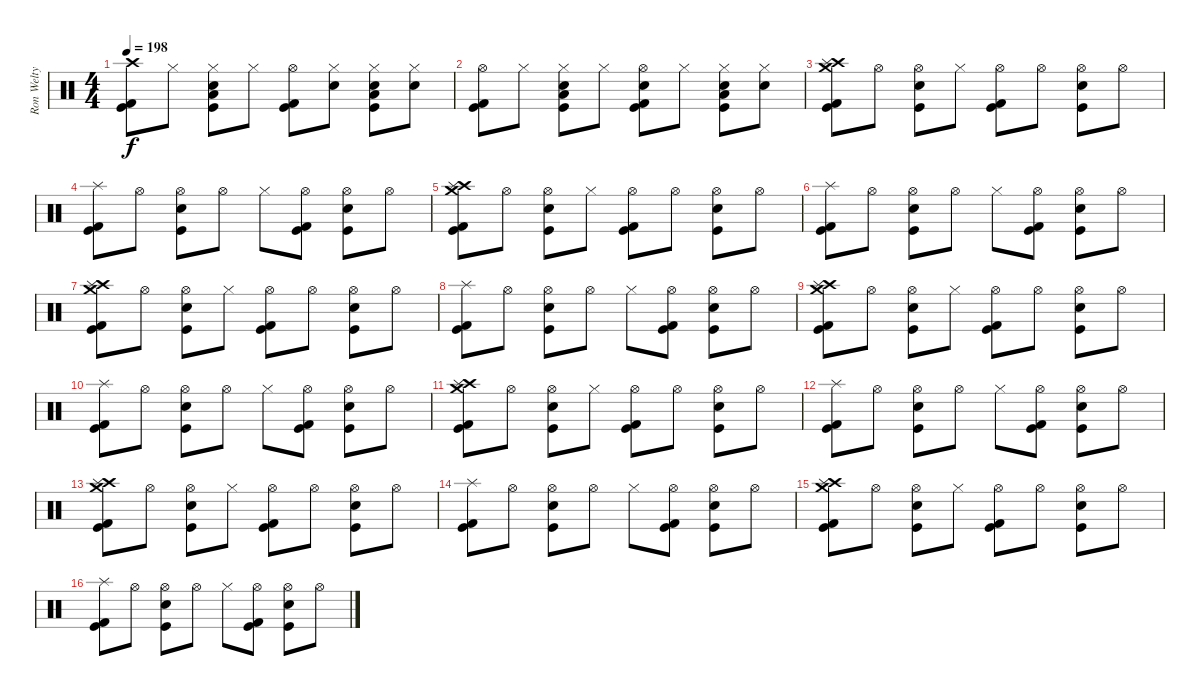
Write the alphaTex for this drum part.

\track ("Ron Welty" "Ron Welty") {instrument percussion}
\staff {score}
\articulation defaults
\ts (4 4)
\tempo 198
\clef neutral
\ks c
("Crash high (hit)" "Kick (hit) 2" "Kick (hit)").8{dy f} "Hi-Hat (closed)".8 ("Hi-Hat (closed)" "Electric Snare (hit)" "Low Tom (hit)" "Kick (hit)").8 "Hi-Hat (closed)".8 ("Hi-Hat (open)" "Kick (hit) 2" "Kick (hit)").8 ("Hi-Hat (closed)" "Electric Snare (hit)").8 ("Hi-Hat (closed)" "Electric Snare (hit)" "Low Tom (hit)" "Kick (hit)").8 ("Hi-Hat (closed)" "Electric Snare (hit)").8 |
("Hi-Hat (open)" "Kick (hit) 2" "Kick (hit)").8 "Hi-Hat (closed)".8 ("Hi-Hat (closed)" "Electric Snare (hit)" "Low Tom (hit)" "Kick (hit)").8 "Hi-Hat (closed)".8 ("Hi-Hat (open)" "Electric Snare (hit)" "Kick (hit) 2" "Kick (hit)").8 "Hi-Hat (closed)".8 ("Hi-Hat (closed)" "Electric Snare (hit)" "Low Tom (hit)" "Kick (hit)").8 ("Hi-Hat (closed)" "Electric Snare (hit)").8 |
("Crash medium (hit)" "Crash high (hit)" "Splash (hit)" "Kick (hit) 2" "Kick (hit)").8 "Hi-Hat (open)".8 ("Hi-Hat (open)" "Electric Snare (hit)" "Kick (hit)").8 "Hi-Hat (closed)".8 ("Hi-Hat (open)" "Kick (hit) 2" "Kick (hit)").8 "Hi-Hat (open)".8 ("Hi-Hat (open)" "Electric Snare (hit)" "Kick (hit)").8 "Hi-Hat (open)".8 |
("Splash (hit)" "Kick (hit) 2" "Kick (hit)").8 "Hi-Hat (open)".8 ("Hi-Hat (open)" "Electric Snare (hit)" "Kick (hit)").8 "Hi-Hat (open)".8 "Hi-Hat (closed)".8 ("Hi-Hat (open)" "Kick (hit) 2" "Kick (hit)").8 ("Hi-Hat (open)" "Electric Snare (hit)" "Kick (hit)").8 "Hi-Hat (open)".8 |
("Crash medium (hit)" "Crash high (hit)" "Splash (hit)" "Kick (hit) 2" "Kick (hit)").8 "Hi-Hat (open)".8 ("Hi-Hat (open)" "Electric Snare (hit)" "Kick (hit)").8 "Hi-Hat (closed)".8 ("Hi-Hat (open)" "Kick (hit) 2" "Kick (hit)").8 "Hi-Hat (open)".8 ("Hi-Hat (open)" "Electric Snare (hit)" "Kick (hit)").8 "Hi-Hat (open)".8 |
("Splash (hit)" "Kick (hit) 2" "Kick (hit)").8 "Hi-Hat (open)".8 ("Hi-Hat (open)" "Electric Snare (hit)" "Kick (hit)").8 "Hi-Hat (open)".8 "Hi-Hat (closed)".8 ("Hi-Hat (open)" "Kick (hit) 2" "Kick (hit)").8 ("Hi-Hat (open)" "Electric Snare (hit)" "Kick (hit)").8 "Hi-Hat (open)".8 |
("Crash medium (hit)" "Crash high (hit)" "Splash (hit)" "Kick (hit) 2" "Kick (hit)").8 "Hi-Hat (open)".8 ("Hi-Hat (open)" "Electric Snare (hit)" "Kick (hit)").8 "Hi-Hat (closed)".8 ("Hi-Hat (open)" "Kick (hit) 2" "Kick (hit)").8 "Hi-Hat (open)".8 ("Hi-Hat (open)" "Electric Snare (hit)" "Kick (hit)").8 "Hi-Hat (open)".8 |
("Splash (hit)" "Kick (hit) 2" "Kick (hit)").8 "Hi-Hat (open)".8 ("Hi-Hat (open)" "Electric Snare (hit)" "Kick (hit)").8 "Hi-Hat (open)".8 "Hi-Hat (closed)".8 ("Hi-Hat (open)" "Kick (hit) 2" "Kick (hit)").8 ("Hi-Hat (open)" "Electric Snare (hit)" "Kick (hit)").8 "Hi-Hat (open)".8 |
("Crash medium (hit)" "Crash high (hit)" "Splash (hit)" "Kick (hit) 2" "Kick (hit)").8 "Hi-Hat (open)".8 ("Hi-Hat (open)" "Electric Snare (hit)" "Kick (hit)").8 "Hi-Hat (closed)".8 ("Hi-Hat (open)" "Kick (hit) 2" "Kick (hit)").8 "Hi-Hat (open)".8 ("Hi-Hat (open)" "Electric Snare (hit)" "Kick (hit)").8 "Hi-Hat (open)".8 |
("Splash (hit)" "Kick (hit) 2" "Kick (hit)").8 "Hi-Hat (open)".8 ("Hi-Hat (open)" "Electric Snare (hit)" "Kick (hit)").8 "Hi-Hat (open)".8 "Hi-Hat (closed)".8 ("Hi-Hat (open)" "Kick (hit) 2" "Kick (hit)").8 ("Hi-Hat (open)" "Electric Snare (hit)" "Kick (hit)").8 "Hi-Hat (open)".8 |
("Crash medium (hit)" "Crash high (hit)" "Splash (hit)" "Kick (hit) 2" "Kick (hit)").8 "Hi-Hat (open)".8 ("Hi-Hat (open)" "Electric Snare (hit)" "Kick (hit)").8 "Hi-Hat (closed)".8 ("Hi-Hat (open)" "Kick (hit) 2" "Kick (hit)").8 "Hi-Hat (open)".8 ("Hi-Hat (open)" "Electric Snare (hit)" "Kick (hit)").8 "Hi-Hat (open)".8 |
("Splash (hit)" "Kick (hit) 2" "Kick (hit)").8 "Hi-Hat (open)".8 ("Hi-Hat (open)" "Electric Snare (hit)" "Kick (hit)").8 "Hi-Hat (open)".8 "Hi-Hat (closed)".8 ("Hi-Hat (open)" "Kick (hit) 2" "Kick (hit)").8 ("Hi-Hat (open)" "Electric Snare (hit)" "Kick (hit)").8 "Hi-Hat (open)".8 |
("Crash medium (hit)" "Crash high (hit)" "Splash (hit)" "Kick (hit) 2" "Kick (hit)").8 "Hi-Hat (open)".8 ("Hi-Hat (open)" "Electric Snare (hit)" "Kick (hit)").8 "Hi-Hat (closed)".8 ("Hi-Hat (open)" "Kick (hit) 2" "Kick (hit)").8 "Hi-Hat (open)".8 ("Hi-Hat (open)" "Electric Snare (hit)" "Kick (hit)").8 "Hi-Hat (open)".8 |
("Splash (hit)" "Kick (hit) 2" "Kick (hit)").8 "Hi-Hat (open)".8 ("Hi-Hat (open)" "Electric Snare (hit)" "Kick (hit)").8 "Hi-Hat (open)".8 "Hi-Hat (closed)".8 ("Hi-Hat (open)" "Kick (hit) 2" "Kick (hit)").8 ("Hi-Hat (open)" "Electric Snare (hit)" "Kick (hit)").8 "Hi-Hat (open)".8 |
("Crash medium (hit)" "Crash high (hit)" "Splash (hit)" "Kick (hit) 2" "Kick (hit)").8 "Hi-Hat (open)".8 ("Hi-Hat (open)" "Electric Snare (hit)" "Kick (hit)").8 "Hi-Hat (closed)".8 ("Hi-Hat (open)" "Kick (hit) 2" "Kick (hit)").8 "Hi-Hat (open)".8 ("Hi-Hat (open)" "Electric Snare (hit)" "Kick (hit)").8 "Hi-Hat (open)".8 |
("Splash (hit)" "Kick (hit) 2" "Kick (hit)").8 "Hi-Hat (open)".8 ("Hi-Hat (open)" "Electric Snare (hit)" "Kick (hit)").8 "Hi-Hat (open)".8 "Hi-Hat (closed)".8 ("Hi-Hat (open)" "Kick (hit) 2" "Kick (hit)").8 ("Hi-Hat (open)" "Electric Snare (hit)" "Kick (hit)").8 "Hi-Hat (open)".8
